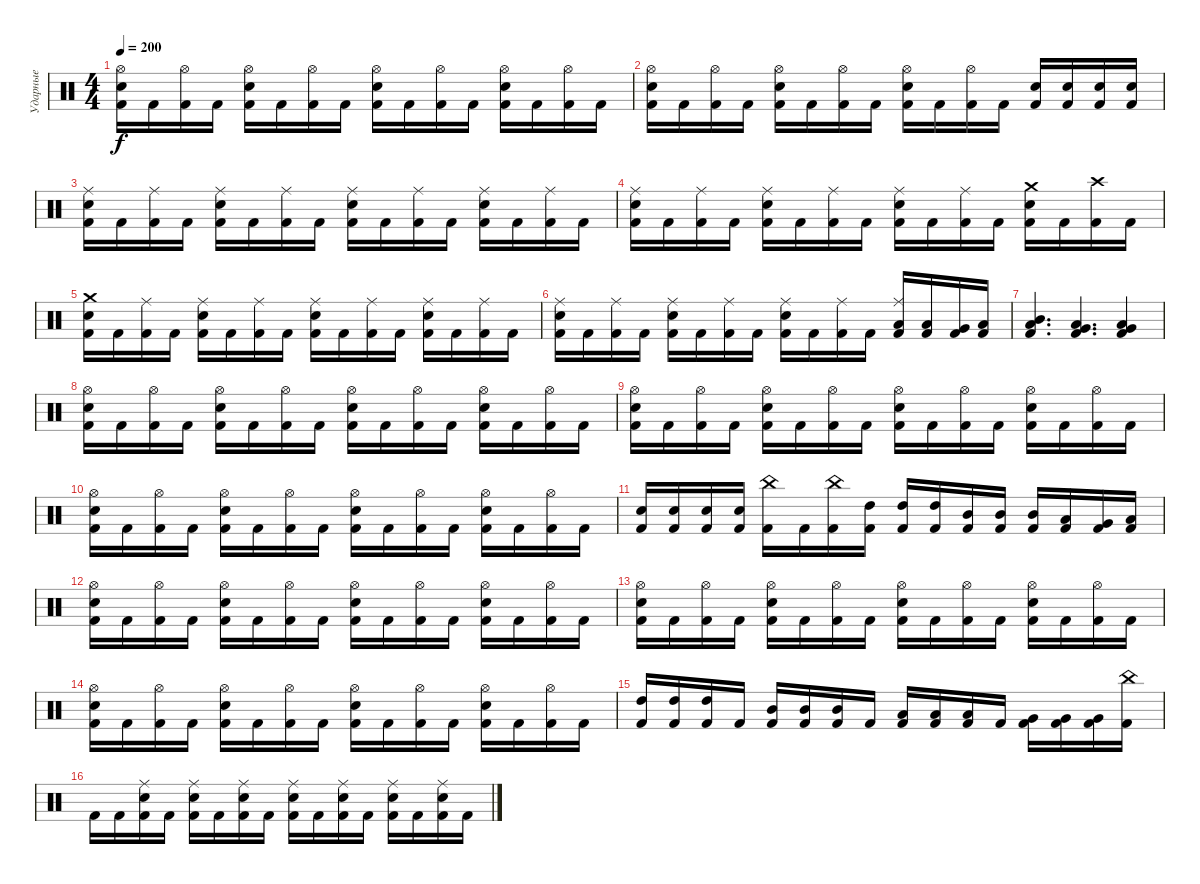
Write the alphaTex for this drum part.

\track ("Ударные" "Ударные") {instrument percussion}
\staff {score}
\articulation defaults
\ts (4 4)
\tempo 200
\clef neutral
\ks c
("Hi-Hat (open)" "Snare (hit) 2" "Kick (hit) 2").16{dy f} "Kick (hit) 2".16 ("Hi-Hat (open)" "Kick (hit) 2").16 "Kick (hit) 2".16 ("Hi-Hat (open)" "Snare (hit) 2" "Kick (hit) 2").16 "Kick (hit) 2".16 ("Hi-Hat (open)" "Kick (hit) 2").16 "Kick (hit) 2".16 ("Hi-Hat (open)" "Snare (hit) 2" "Kick (hit) 2").16 "Kick (hit) 2".16 ("Hi-Hat (open)" "Kick (hit) 2").16 "Kick (hit) 2".16 ("Hi-Hat (open)" "Snare (hit) 2" "Kick (hit) 2").16 "Kick (hit) 2".16 ("Hi-Hat (open)" "Kick (hit) 2").16 "Kick (hit) 2".16 |
("Hi-Hat (open)" "Snare (hit) 2" "Kick (hit) 2").16 "Kick (hit) 2".16 ("Hi-Hat (open)" "Kick (hit) 2").16 "Kick (hit) 2".16 ("Hi-Hat (open)" "Snare (hit) 2" "Kick (hit) 2").16 "Kick (hit) 2".16 ("Hi-Hat (open)" "Kick (hit) 2").16 "Kick (hit) 2".16 ("Hi-Hat (open)" "Snare (hit) 2" "Kick (hit) 2").16 "Kick (hit) 2".16 ("Hi-Hat (open)" "Kick (hit) 2").16 "Kick (hit) 2".16 ("Snare (hit) 2" "Kick (hit) 2").16 ("Snare (hit) 2" "Kick (hit) 2").16 ("Snare (hit) 2" "Kick (hit) 2").16 ("Snare (hit) 2" "Kick (hit) 2").16 |
("Ride (middle)" "Snare (hit) 2" "Kick (hit) 2").16 "Kick (hit) 2".16 ("Ride (middle)" "Kick (hit) 2").16 "Kick (hit) 2".16 ("Ride (middle)" "Snare (hit) 2" "Kick (hit) 2").16 "Kick (hit) 2".16 ("Ride (middle)" "Kick (hit) 2").16 "Kick (hit) 2".16 ("Ride (middle)" "Snare (hit) 2" "Kick (hit) 2").16 "Kick (hit) 2".16 ("Ride (middle)" "Kick (hit) 2").16 "Kick (hit) 2".16 ("Ride (middle)" "Snare (hit) 2" "Kick (hit) 2").16 "Kick (hit) 2".16 ("Ride (middle)" "Kick (hit) 2").16 "Kick (hit) 2".16 |
("Ride (middle)" "Snare (hit) 2" "Kick (hit) 2").16 "Kick (hit) 2".16 ("Ride (middle)" "Kick (hit) 2").16 "Kick (hit) 2".16 ("Ride (middle)" "Snare (hit) 2" "Kick (hit) 2").16 "Kick (hit) 2".16 ("Ride (middle)" "Kick (hit) 2").16 "Kick (hit) 2".16 ("Ride (middle)" "Snare (hit) 2" "Kick (hit) 2").16 "Kick (hit) 2".16 ("Ride (middle)" "Kick (hit) 2").16 "Kick (hit) 2".16 ("Crash medium (hit)" "Snare (hit) 2" "Kick (hit) 2").16 "Kick (hit) 2".16 ("Crash high (hit)" "Kick (hit) 2").16 "Kick (hit) 2".16 |
("Crash medium (hit)" "Snare (hit) 2" "Kick (hit) 2").16 "Kick (hit) 2".16 ("Ride (middle)" "Kick (hit) 2").16 "Kick (hit) 2".16 ("Ride (middle)" "Snare (hit) 2" "Kick (hit) 2").16 "Kick (hit) 2".16 ("Ride (middle)" "Kick (hit) 2").16 "Kick (hit) 2".16 ("Ride (middle)" "Snare (hit) 2" "Kick (hit) 2").16 "Kick (hit) 2".16 ("Ride (middle)" "Kick (hit) 2").16 "Kick (hit) 2".16 ("Ride (middle)" "Snare (hit) 2" "Kick (hit) 2").16 "Kick (hit) 2".16 ("Ride (middle)" "Kick (hit) 2").16 "Kick (hit) 2".16 |
("Ride (middle)" "Snare (hit) 2" "Kick (hit) 2").16 "Kick (hit) 2".16 ("Ride (middle)" "Kick (hit) 2").16 "Kick (hit) 2".16 ("Ride (middle)" "Snare (hit) 2" "Kick (hit) 2").16 "Kick (hit) 2".16 ("Ride (middle)" "Kick (hit) 2").16 "Kick (hit) 2".16 ("Ride (middle)" "Snare (hit) 2" "Kick (hit) 2").16 "Kick (hit) 2".16 ("Ride (middle)" "Kick (hit) 2").16 "Kick (hit) 2".16 ("Ride (middle)" "Low Tom (hit)" "Kick (hit) 2").16 ("Low Tom (hit)" "Kick (hit) 2").16 ("Very Low Tom (hit)" "Kick (hit) 2").16 ("Low Floor Tom (hit)" "Kick (hit) 2").16 |
("Mid Tom (hit)" "Low Tom (hit)" "Kick (hit) 2").4{d} ("Low Tom (hit)" "Very Low Tom (hit)" "Kick (hit) 2").4{d} ("Very Low Tom (hit)" "Low Floor Tom (hit)" "Kick (hit) 2").4 |
("Hi-Hat (open)" "Snare (hit) 2" "Kick (hit) 2").16 "Kick (hit) 2".16 ("Hi-Hat (open)" "Kick (hit) 2").16 "Kick (hit) 2".16 ("Hi-Hat (open)" "Snare (hit) 2" "Kick (hit) 2").16 "Kick (hit) 2".16 ("Hi-Hat (open)" "Kick (hit) 2").16 "Kick (hit) 2".16 ("Hi-Hat (open)" "Snare (hit) 2" "Kick (hit) 2").16 "Kick (hit) 2".16 ("Hi-Hat (open)" "Kick (hit) 2").16 "Kick (hit) 2".16 ("Hi-Hat (open)" "Snare (hit) 2" "Kick (hit) 2").16 "Kick (hit) 2".16 ("Hi-Hat (open)" "Kick (hit) 2").16 "Kick (hit) 2".16 |
("Hi-Hat (open)" "Snare (hit) 2" "Kick (hit) 2").16 "Kick (hit) 2".16 ("Hi-Hat (open)" "Kick (hit) 2").16 "Kick (hit) 2".16 ("Hi-Hat (open)" "Snare (hit) 2" "Kick (hit) 2").16 "Kick (hit) 2".16 ("Hi-Hat (open)" "Kick (hit) 2").16 "Kick (hit) 2".16 ("Hi-Hat (open)" "Snare (hit) 2" "Kick (hit) 2").16 "Kick (hit) 2".16 ("Hi-Hat (open)" "Kick (hit) 2").16 "Kick (hit) 2".16 ("Hi-Hat (open)" "Snare (hit) 2" "Kick (hit) 2").16 "Kick (hit) 2".16 ("Hi-Hat (open)" "Kick (hit) 2").16 "Kick (hit) 2".16 |
("Hi-Hat (open)" "Snare (hit) 2" "Kick (hit) 2").16 "Kick (hit) 2".16 ("Hi-Hat (open)" "Kick (hit) 2").16 "Kick (hit) 2".16 ("Hi-Hat (open)" "Snare (hit) 2" "Kick (hit) 2").16 "Kick (hit) 2".16 ("Hi-Hat (open)" "Kick (hit) 2").16 "Kick (hit) 2".16 ("Hi-Hat (open)" "Snare (hit) 2" "Kick (hit) 2").16 "Kick (hit) 2".16 ("Hi-Hat (open)" "Kick (hit) 2").16 "Kick (hit) 2".16 ("Hi-Hat (open)" "Snare (hit) 2" "Kick (hit) 2").16 "Kick (hit) 2".16 ("Hi-Hat (open)" "Kick (hit) 2").16 "Kick (hit) 2".16 |
("Snare (hit) 2" "Kick (hit) 2").16 ("Snare (hit) 2" "Kick (hit) 2").16 ("Snare (hit) 2" "Kick (hit) 2").16 ("Snare (hit) 2" "Kick (hit) 2").16 ("China (hit)" "Kick (hit) 2").16 "Kick (hit) 2".16 ("China (hit)" "Kick (hit) 2").16 ("High Tom (hit)" "Kick (hit) 2").16 ("High Tom (hit)" "Kick (hit) 2").16 ("High Tom (hit)" "Kick (hit) 2").16 ("Mid Tom (hit)" "Kick (hit) 2").16 ("Mid Tom (hit)" "Kick (hit) 2").16 ("Mid Tom (hit)" "Kick (hit) 2").16 ("Low Tom (hit)" "Kick (hit) 2").16 ("Very Low Tom (hit)" "Kick (hit) 2").16 ("Low Floor Tom (hit)" "Kick (hit) 2").16 |
("Hi-Hat (open)" "Snare (hit) 2" "Kick (hit) 2").16 "Kick (hit) 2".16 ("Hi-Hat (open)" "Kick (hit) 2").16 "Kick (hit) 2".16 ("Hi-Hat (open)" "Snare (hit) 2" "Kick (hit) 2").16 "Kick (hit) 2".16 ("Hi-Hat (open)" "Kick (hit) 2").16 "Kick (hit) 2".16 ("Hi-Hat (open)" "Snare (hit) 2" "Kick (hit) 2").16 "Kick (hit) 2".16 ("Hi-Hat (open)" "Kick (hit) 2").16 "Kick (hit) 2".16 ("Hi-Hat (open)" "Snare (hit) 2" "Kick (hit) 2").16 "Kick (hit) 2".16 ("Hi-Hat (open)" "Kick (hit) 2").16 "Kick (hit) 2".16 |
("Hi-Hat (open)" "Snare (hit) 2" "Kick (hit) 2").16 "Kick (hit) 2".16 ("Hi-Hat (open)" "Kick (hit) 2").16 "Kick (hit) 2".16 ("Hi-Hat (open)" "Snare (hit) 2" "Kick (hit) 2").16 "Kick (hit) 2".16 ("Hi-Hat (open)" "Kick (hit) 2").16 "Kick (hit) 2".16 ("Hi-Hat (open)" "Snare (hit) 2" "Kick (hit) 2").16 "Kick (hit) 2".16 ("Hi-Hat (open)" "Kick (hit) 2").16 "Kick (hit) 2".16 ("Hi-Hat (open)" "Snare (hit) 2" "Kick (hit) 2").16 "Kick (hit) 2".16 ("Hi-Hat (open)" "Kick (hit) 2").16 "Kick (hit) 2".16 |
("Hi-Hat (open)" "Snare (hit) 2" "Kick (hit) 2").16 "Kick (hit) 2".16 ("Hi-Hat (open)" "Kick (hit) 2").16 "Kick (hit) 2".16 ("Hi-Hat (open)" "Snare (hit) 2" "Kick (hit) 2").16 "Kick (hit) 2".16 ("Hi-Hat (open)" "Kick (hit) 2").16 "Kick (hit) 2".16 ("Hi-Hat (open)" "Snare (hit) 2" "Kick (hit) 2").16 "Kick (hit) 2".16 ("Hi-Hat (open)" "Kick (hit) 2").16 "Kick (hit) 2".16 ("Hi-Hat (open)" "Snare (hit) 2" "Kick (hit) 2").16 "Kick (hit) 2".16 ("Hi-Hat (open)" "Kick (hit) 2").16 "Kick (hit) 2".16 |
("High Tom (hit)" "Kick (hit) 2").16 ("High Tom (hit)" "Kick (hit) 2").16 ("High Tom (hit)" "Kick (hit) 2").16 "Kick (hit) 2".16 ("Mid Tom (hit)" "Kick (hit) 2").16 ("Mid Tom (hit)" "Kick (hit) 2").16 ("Mid Tom (hit)" "Kick (hit) 2").16 "Kick (hit) 2".16 ("Low Tom (hit)" "Kick (hit) 2").16 ("Low Tom (hit)" "Kick (hit) 2").16 ("Low Tom (hit)" "Kick (hit) 2").16 "Kick (hit) 2".16 ("Very Low Tom (hit)" "Kick (hit) 2").16 ("Very Low Tom (hit)" "Kick (hit) 2").16 ("Very Low Tom (hit)" "Kick (hit) 2").16 ("China (hit)" "Kick (hit) 2").16 |
"Kick (hit) 2".16 "Kick (hit) 2".16 ("Ride (middle)" "Snare (hit) 2" "Kick (hit) 2").16 "Kick (hit) 2".16 ("Ride (middle)" "Snare (hit) 2" "Kick (hit) 2").16 "Kick (hit) 2".16 ("Ride (middle)" "Snare (hit) 2" "Kick (hit) 2").16 "Kick (hit) 2".16 ("Ride (middle)" "Snare (hit) 2" "Kick (hit) 2").16 "Kick (hit) 2".16 ("Ride (middle)" "Snare (hit) 2" "Kick (hit) 2").16 "Kick (hit) 2".16 ("Ride (middle)" "Snare (hit) 2" "Kick (hit) 2").16 "Kick (hit) 2".16 ("Ride (middle)" "Snare (hit) 2" "Kick (hit) 2").16 "Kick (hit) 2".16
